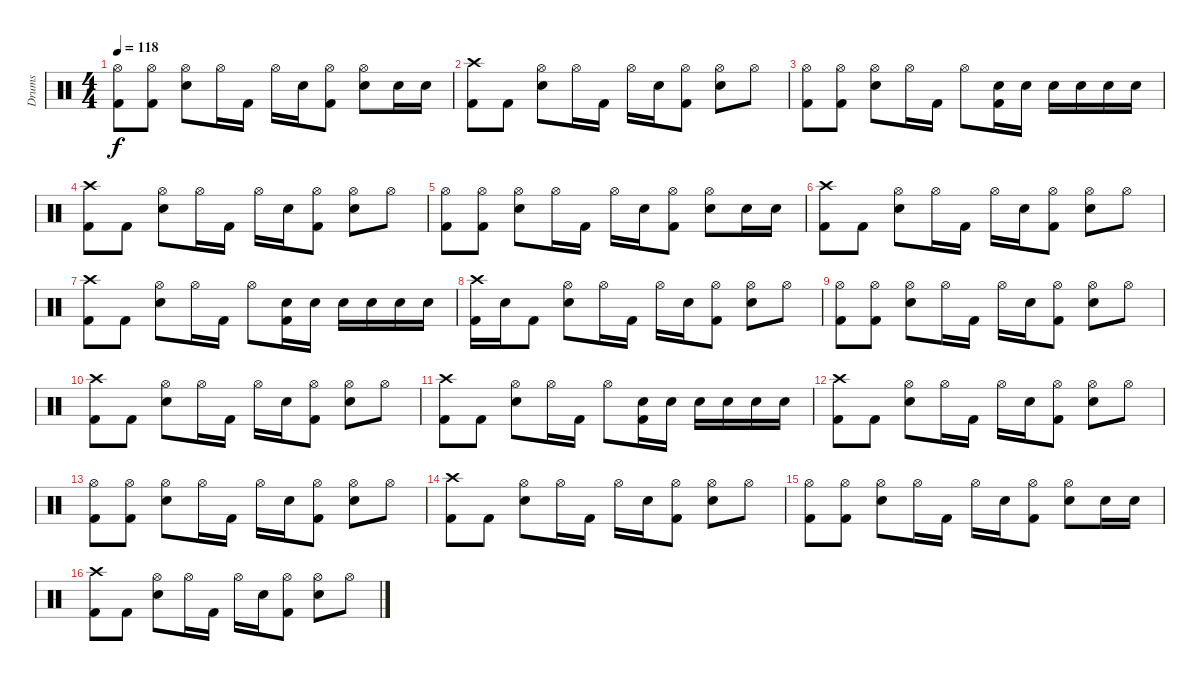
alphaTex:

\track ("Drums" "Drums") {instrument percussion}
\staff {score}
\articulation defaults
\ts (4 4)
\tempo 118
\clef neutral
\ks c
("Hi-Hat (open)" "Kick (hit) 2").8{dy f} ("Hi-Hat (open)" "Kick (hit) 2").8 ("Hi-Hat (open)" "Electric Snare (hit)").8 "Hi-Hat (open)".16 "Kick (hit) 2".16 "Hi-Hat (open)".16 "Electric Snare (hit)".16 ("Hi-Hat (open)" "Kick (hit) 2").8 ("Hi-Hat (open)" "Electric Snare (hit)").8 "Electric Snare (hit)".16 "Electric Snare (hit)".16 |
("Crash high (hit)" "Kick (hit) 2").8 "Kick (hit) 2".8 ("Hi-Hat (open)" "Electric Snare (hit)").8 "Hi-Hat (open)".16 "Kick (hit) 2".16 "Hi-Hat (open)".16 "Electric Snare (hit)".16 ("Hi-Hat (open)" "Kick (hit) 2").8 ("Hi-Hat (open)" "Electric Snare (hit)").8 "Hi-Hat (open)".8 |
("Hi-Hat (open)" "Kick (hit) 2").8 ("Hi-Hat (open)" "Kick (hit) 2").8 ("Hi-Hat (open)" "Electric Snare (hit)").8 "Hi-Hat (open)".16 "Kick (hit) 2".16 "Hi-Hat (open)".8 ("Electric Snare (hit)" "Kick (hit) 2").16 "Electric Snare (hit)".16 "Electric Snare (hit)".16 "Electric Snare (hit)".16 "Electric Snare (hit)".16 "Electric Snare (hit)".16 |
("Crash high (hit)" "Kick (hit) 2").8 "Kick (hit) 2".8 ("Hi-Hat (open)" "Electric Snare (hit)").8 "Hi-Hat (open)".16 "Kick (hit) 2".16 "Hi-Hat (open)".16 "Electric Snare (hit)".16 ("Hi-Hat (open)" "Kick (hit) 2").8 ("Hi-Hat (open)" "Electric Snare (hit)").8 "Hi-Hat (open)".8 |
("Hi-Hat (open)" "Kick (hit) 2").8 ("Hi-Hat (open)" "Kick (hit) 2").8 ("Hi-Hat (open)" "Electric Snare (hit)").8 "Hi-Hat (open)".16 "Kick (hit) 2".16 "Hi-Hat (open)".16 "Electric Snare (hit)".16 ("Hi-Hat (open)" "Kick (hit) 2").8 ("Hi-Hat (open)" "Electric Snare (hit)").8 "Electric Snare (hit)".16 "Electric Snare (hit)".16 |
("Crash high (hit)" "Kick (hit) 2").8 "Kick (hit) 2".8 ("Hi-Hat (open)" "Electric Snare (hit)").8 "Hi-Hat (open)".16 "Kick (hit) 2".16 "Hi-Hat (open)".16 "Electric Snare (hit)".16 ("Hi-Hat (open)" "Kick (hit) 2").8 ("Hi-Hat (open)" "Electric Snare (hit)").8 "Hi-Hat (open)".8 |
("Crash high (hit)" "Kick (hit) 2").8 "Kick (hit) 2".8 ("Hi-Hat (open)" "Electric Snare (hit)").8 "Hi-Hat (open)".16 "Kick (hit) 2".16 "Hi-Hat (open)".8 ("Electric Snare (hit)" "Kick (hit) 2").16 "Electric Snare (hit)".16 "Electric Snare (hit)".16 "Electric Snare (hit)".16 "Electric Snare (hit)".16 "Electric Snare (hit)".16 |
("Crash high (hit)" "Kick (hit) 2").16 "Electric Snare (hit)".16 "Kick (hit) 2".8 ("Hi-Hat (open)" "Electric Snare (hit)").8 "Hi-Hat (open)".16 "Kick (hit) 2".16 "Hi-Hat (open)".16 "Electric Snare (hit)".16 ("Hi-Hat (open)" "Kick (hit) 2").8 ("Hi-Hat (open)" "Electric Snare (hit)").8 "Hi-Hat (open)".8 |
("Hi-Hat (open)" "Kick (hit) 2").8 ("Hi-Hat (open)" "Kick (hit) 2").8 ("Hi-Hat (open)" "Electric Snare (hit)").8 "Hi-Hat (open)".16 "Kick (hit) 2".16 "Hi-Hat (open)".16 "Electric Snare (hit)".16 ("Hi-Hat (open)" "Kick (hit) 2").8 ("Hi-Hat (open)" "Electric Snare (hit)").8 "Hi-Hat (open)".8 |
("Crash high (hit)" "Kick (hit) 2").8 "Kick (hit) 2".8 ("Hi-Hat (open)" "Electric Snare (hit)").8 "Hi-Hat (open)".16 "Kick (hit) 2".16 "Hi-Hat (open)".16 "Electric Snare (hit)".16 ("Hi-Hat (open)" "Kick (hit) 2").8 ("Hi-Hat (open)" "Electric Snare (hit)").8 "Hi-Hat (open)".8 |
("Crash high (hit)" "Kick (hit) 2").8 "Kick (hit) 2".8 ("Hi-Hat (open)" "Electric Snare (hit)").8 "Hi-Hat (open)".16 "Kick (hit) 2".16 "Hi-Hat (open)".8 ("Electric Snare (hit)" "Kick (hit) 2").16 "Electric Snare (hit)".16 "Electric Snare (hit)".16 "Electric Snare (hit)".16 "Electric Snare (hit)".16 "Electric Snare (hit)".16 |
("Crash high (hit)" "Kick (hit) 2").8 "Kick (hit) 2".8 ("Hi-Hat (open)" "Electric Snare (hit)").8 "Hi-Hat (open)".16 "Kick (hit) 2".16 "Hi-Hat (open)".16 "Electric Snare (hit)".16 ("Hi-Hat (open)" "Kick (hit) 2").8 ("Hi-Hat (open)" "Electric Snare (hit)").8 "Hi-Hat (open)".8 |
("Hi-Hat (open)" "Kick (hit) 2").8 ("Hi-Hat (open)" "Kick (hit) 2").8 ("Hi-Hat (open)" "Electric Snare (hit)").8 "Hi-Hat (open)".16 "Kick (hit) 2".16 "Hi-Hat (open)".16 "Electric Snare (hit)".16 ("Hi-Hat (open)" "Kick (hit) 2").8 ("Hi-Hat (open)" "Electric Snare (hit)").8 "Hi-Hat (open)".8 |
("Crash high (hit)" "Kick (hit) 2").8 "Kick (hit) 2".8 ("Hi-Hat (open)" "Electric Snare (hit)").8 "Hi-Hat (open)".16 "Kick (hit) 2".16 "Hi-Hat (open)".16 "Electric Snare (hit)".16 ("Hi-Hat (open)" "Kick (hit) 2").8 ("Hi-Hat (open)" "Electric Snare (hit)").8 "Hi-Hat (open)".8 |
("Hi-Hat (open)" "Kick (hit) 2").8 ("Hi-Hat (open)" "Kick (hit) 2").8 ("Hi-Hat (open)" "Electric Snare (hit)").8 "Hi-Hat (open)".16 "Kick (hit) 2".16 "Hi-Hat (open)".16 "Electric Snare (hit)".16 ("Hi-Hat (open)" "Kick (hit) 2").8 ("Hi-Hat (open)" "Electric Snare (hit)").8 "Electric Snare (hit)".16 "Electric Snare (hit)".16 |
("Crash high (hit)" "Kick (hit) 2").8 "Kick (hit) 2".8 ("Hi-Hat (open)" "Electric Snare (hit)").8 "Hi-Hat (open)".16 "Kick (hit) 2".16 "Hi-Hat (open)".16 "Electric Snare (hit)".16 ("Hi-Hat (open)" "Kick (hit) 2").8 ("Hi-Hat (open)" "Electric Snare (hit)").8 "Hi-Hat (open)".8
